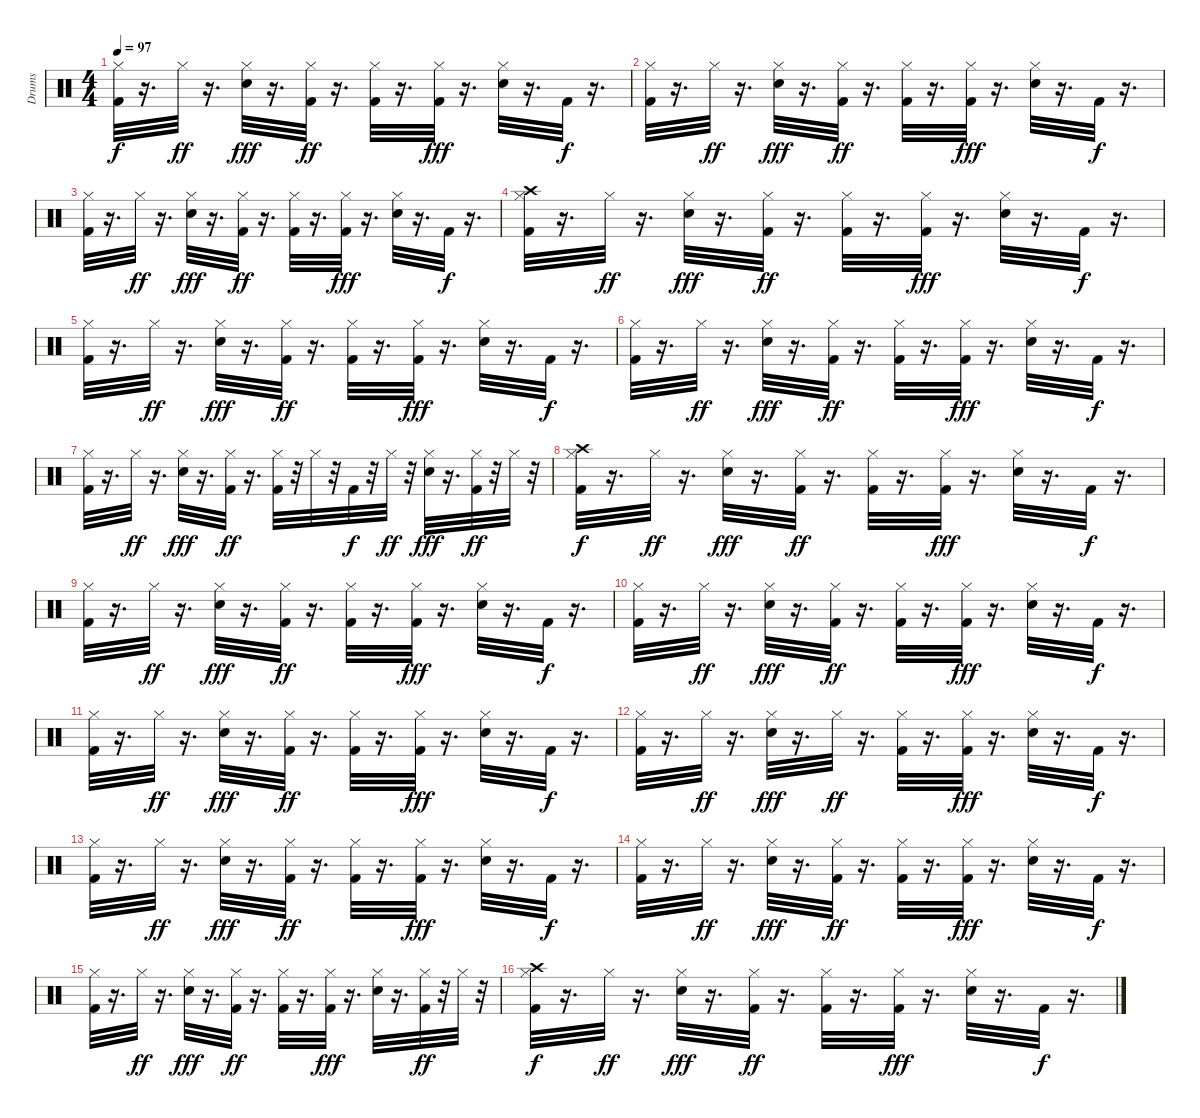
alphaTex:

\track ("Drums" "Drums") {instrument percussion}
\staff {score}
\articulation defaults
\ts (4 4)
\tempo 97
\clef neutral
\ks c
("Hi-Hat (closed)" "Kick (hit) 2").32{dy f} r.16{d} "Hi-Hat (closed)".32{dy ff} r.16{d} ("Hi-Hat (closed)" "Electric Snare (hit)").32{dy fff} r.16{d} ("Hi-Hat (closed)" "Kick (hit) 2").32{dy ff} r.16{d} ("Hi-Hat (closed)" "Kick (hit) 2").32 r.16{d} ("Hi-Hat (closed)" "Kick (hit) 2").32{dy fff} r.16{d} ("Hi-Hat (closed)" "Electric Snare (hit)").32 r.16{d} "Kick (hit) 2".32{dy f} r.16{d} |
("Hi-Hat (closed)" "Kick (hit) 2").32 r.16{d} "Hi-Hat (closed)".32{dy ff} r.16{d} ("Hi-Hat (closed)" "Electric Snare (hit)").32{dy fff} r.16{d} ("Hi-Hat (closed)" "Kick (hit) 2").32{dy ff} r.16{d} ("Hi-Hat (closed)" "Kick (hit) 2").32 r.16{d} ("Hi-Hat (closed)" "Kick (hit) 2").32{dy fff} r.16{d} ("Hi-Hat (closed)" "Electric Snare (hit)").32 r.16{d} "Kick (hit) 2".32{dy f} r.16{d} |
("Hi-Hat (closed)" "Kick (hit) 2").32 r.16{d} "Hi-Hat (closed)".32{dy ff} r.16{d} ("Hi-Hat (closed)" "Electric Snare (hit)").32{dy fff} r.16{d} ("Hi-Hat (closed)" "Kick (hit) 2").32{dy ff} r.16{d} ("Hi-Hat (closed)" "Kick (hit) 2").32 r.16{d} ("Hi-Hat (closed)" "Kick (hit) 2").32{dy fff} r.16{d} ("Hi-Hat (closed)" "Electric Snare (hit)").32 r.16{d} "Kick (hit) 2".32{dy f} r.16{d} |
("Crash high (hit)" "Hi-Hat (closed)" "Kick (hit) 2").32 r.16{d} "Hi-Hat (closed)".32{dy ff} r.16{d} ("Hi-Hat (closed)" "Electric Snare (hit)").32{dy fff} r.16{d} ("Hi-Hat (closed)" "Kick (hit) 2").32{dy ff} r.16{d} ("Hi-Hat (closed)" "Kick (hit) 2").32 r.16{d} ("Hi-Hat (closed)" "Kick (hit) 2").32{dy fff} r.16{d} ("Hi-Hat (closed)" "Electric Snare (hit)").32 r.16{d} "Kick (hit) 2".32{dy f} r.16{d} |
("Hi-Hat (closed)" "Kick (hit) 2").32 r.16{d} "Hi-Hat (closed)".32{dy ff} r.16{d} ("Hi-Hat (closed)" "Electric Snare (hit)").32{dy fff} r.16{d} ("Hi-Hat (closed)" "Kick (hit) 2").32{dy ff} r.16{d} ("Hi-Hat (closed)" "Kick (hit) 2").32 r.16{d} ("Hi-Hat (closed)" "Kick (hit) 2").32{dy fff} r.16{d} ("Hi-Hat (closed)" "Electric Snare (hit)").32 r.16{d} "Kick (hit) 2".32{dy f} r.16{d} |
("Hi-Hat (closed)" "Kick (hit) 2").32 r.16{d} "Hi-Hat (closed)".32{dy ff} r.16{d} ("Hi-Hat (closed)" "Electric Snare (hit)").32{dy fff} r.16{d} ("Hi-Hat (closed)" "Kick (hit) 2").32{dy ff} r.16{d} ("Hi-Hat (closed)" "Kick (hit) 2").32 r.16{d} ("Hi-Hat (closed)" "Kick (hit) 2").32{dy fff} r.16{d} ("Hi-Hat (closed)" "Electric Snare (hit)").32 r.16{d} "Kick (hit) 2".32{dy f} r.16{d} |
("Hi-Hat (closed)" "Kick (hit) 2").32 r.16{d} "Hi-Hat (closed)".32{dy ff} r.16{d} ("Hi-Hat (closed)" "Electric Snare (hit)").32{dy fff} r.16{d} ("Hi-Hat (closed)" "Kick (hit) 2").32{dy ff} r.16{d} ("Hi-Hat (closed)" "Kick (hit) 2").32 r.32 "Hi-Hat (closed)".32 r.32 "Kick (hit) 2".32{dy f} r.32 "Hi-Hat (closed)".32{dy ff} r.32 ("Hi-Hat (closed)" "Electric Snare (hit)").32{dy fff} r.16{d} ("Hi-Hat (closed)" "Kick (hit) 2").32{dy ff} r.32 "Hi-Hat (closed)".32 r.32 |
("Crash high (hit)" "Hi-Hat (closed)" "Kick (hit) 2").32{dy f} r.16{d} "Hi-Hat (closed)".32{dy ff} r.16{d} ("Hi-Hat (closed)" "Electric Snare (hit)").32{dy fff} r.16{d} ("Hi-Hat (closed)" "Kick (hit) 2").32{dy ff} r.16{d} ("Hi-Hat (closed)" "Kick (hit) 2").32 r.16{d} ("Hi-Hat (closed)" "Kick (hit) 2").32{dy fff} r.16{d} ("Hi-Hat (closed)" "Electric Snare (hit)").32 r.16{d} "Kick (hit) 2".32{dy f} r.16{d} |
("Hi-Hat (closed)" "Kick (hit) 2").32 r.16{d} "Hi-Hat (closed)".32{dy ff} r.16{d} ("Hi-Hat (closed)" "Electric Snare (hit)").32{dy fff} r.16{d} ("Hi-Hat (closed)" "Kick (hit) 2").32{dy ff} r.16{d} ("Hi-Hat (closed)" "Kick (hit) 2").32 r.16{d} ("Hi-Hat (closed)" "Kick (hit) 2").32{dy fff} r.16{d} ("Hi-Hat (closed)" "Electric Snare (hit)").32 r.16{d} "Kick (hit) 2".32{dy f} r.16{d} |
("Hi-Hat (closed)" "Kick (hit) 2").32 r.16{d} "Hi-Hat (closed)".32{dy ff} r.16{d} ("Hi-Hat (closed)" "Electric Snare (hit)").32{dy fff} r.16{d} ("Hi-Hat (closed)" "Kick (hit) 2").32{dy ff} r.16{d} ("Hi-Hat (closed)" "Kick (hit) 2").32 r.16{d} ("Hi-Hat (closed)" "Kick (hit) 2").32{dy fff} r.16{d} ("Hi-Hat (closed)" "Electric Snare (hit)").32 r.16{d} "Kick (hit) 2".32{dy f} r.16{d} |
("Hi-Hat (closed)" "Kick (hit) 2").32 r.16{d} "Hi-Hat (closed)".32{dy ff} r.16{d} ("Hi-Hat (closed)" "Electric Snare (hit)").32{dy fff} r.16{d} ("Hi-Hat (closed)" "Kick (hit) 2").32{dy ff} r.16{d} ("Hi-Hat (closed)" "Kick (hit) 2").32 r.16{d} ("Hi-Hat (closed)" "Kick (hit) 2").32{dy fff} r.16{d} ("Hi-Hat (closed)" "Electric Snare (hit)").32 r.16{d} "Kick (hit) 2".32{dy f} r.16{d} |
("Hi-Hat (closed)" "Kick (hit) 2").32 r.16{d} "Hi-Hat (closed)".32{dy ff} r.16{d} ("Hi-Hat (closed)" "Electric Snare (hit)").32{dy fff} r.16{d} "Hi-Hat (closed)".32{dy ff} r.16{d} ("Hi-Hat (closed)" "Kick (hit) 2").32 r.16{d} ("Hi-Hat (closed)" "Kick (hit) 2").32{dy fff} r.16{d} ("Hi-Hat (closed)" "Electric Snare (hit)").32 r.16{d} "Kick (hit) 2".32{dy f} r.16{d} |
("Hi-Hat (closed)" "Kick (hit) 2").32 r.16{d} "Hi-Hat (closed)".32{dy ff} r.16{d} ("Hi-Hat (closed)" "Electric Snare (hit)").32{dy fff} r.16{d} ("Hi-Hat (closed)" "Kick (hit) 2").32{dy ff} r.16{d} ("Hi-Hat (closed)" "Kick (hit) 2").32 r.16{d} ("Hi-Hat (closed)" "Kick (hit) 2").32{dy fff} r.16{d} ("Hi-Hat (closed)" "Electric Snare (hit)").32 r.16{d} "Kick (hit) 2".32{dy f} r.16{d} |
("Hi-Hat (closed)" "Kick (hit) 2").32 r.16{d} "Hi-Hat (closed)".32{dy ff} r.16{d} ("Hi-Hat (closed)" "Electric Snare (hit)").32{dy fff} r.16{d} ("Hi-Hat (closed)" "Kick (hit) 2").32{dy ff} r.16{d} ("Hi-Hat (closed)" "Kick (hit) 2").32 r.16{d} ("Hi-Hat (closed)" "Kick (hit) 2").32{dy fff} r.16{d} ("Hi-Hat (closed)" "Electric Snare (hit)").32 r.16{d} "Kick (hit) 2".32{dy f} r.16{d} |
("Hi-Hat (closed)" "Kick (hit) 2").32 r.16{d} "Hi-Hat (closed)".32{dy ff} r.16{d} ("Hi-Hat (closed)" "Electric Snare (hit)").32{dy fff} r.16{d} ("Hi-Hat (closed)" "Kick (hit) 2").32{dy ff} r.16{d} ("Hi-Hat (closed)" "Kick (hit) 2").32 r.16{d} ("Hi-Hat (closed)" "Kick (hit) 2").32{dy fff} r.16{d} ("Hi-Hat (closed)" "Electric Snare (hit)").32 r.16{d} ("Hi-Hat (closed)" "Kick (hit) 2").32{dy ff} r.32 "Hi-Hat (closed)".32 r.32 |
("Crash high (hit)" "Hi-Hat (closed)" "Kick (hit) 2").32{dy f} r.16{d} "Hi-Hat (closed)".32{dy ff} r.16{d} ("Hi-Hat (closed)" "Electric Snare (hit)").32{dy fff} r.16{d} ("Hi-Hat (closed)" "Kick (hit) 2").32{dy ff} r.16{d} ("Hi-Hat (closed)" "Kick (hit) 2").32 r.16{d} ("Hi-Hat (closed)" "Kick (hit) 2").32{dy fff} r.16{d} ("Hi-Hat (closed)" "Electric Snare (hit)").32 r.16{d} "Kick (hit) 2".32{dy f} r.16{d}
